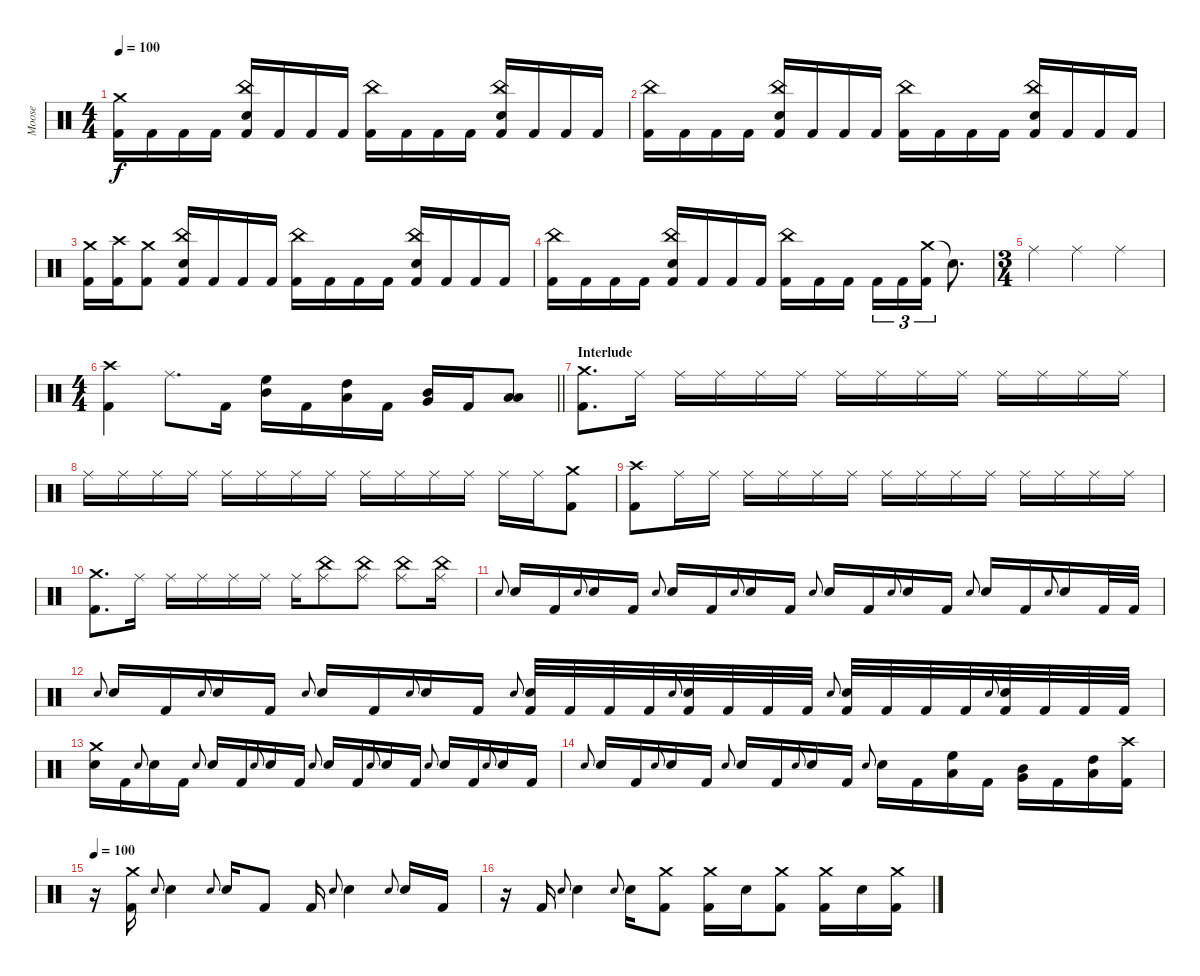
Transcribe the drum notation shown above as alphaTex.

\track ("Moose" "Moose") {instrument percussion}
\staff {score}
\articulation defaults
\ts (4 4)
\tempo 100
\clef neutral
\ks c
("Crash medium (hit)" "Kick (hit) 2").16{dy f} "Kick (hit) 2".16 "Kick (hit) 2".16 "Kick (hit) 2".16 ("China (hit)" "Electric Snare (hit)" "Kick (hit) 2").16 "Kick (hit) 2".16 "Kick (hit) 2".16 "Kick (hit) 2".16 ("China (hit)" "Kick (hit) 2").16 "Kick (hit) 2".16 "Kick (hit) 2".16 "Kick (hit) 2".16 ("China (hit)" "Electric Snare (hit)" "Kick (hit) 2").16 "Kick (hit) 2".16 "Kick (hit) 2".16 "Kick (hit) 2".16 |
("China (hit)" "Kick (hit) 2").16 "Kick (hit) 2".16 "Kick (hit) 2".16 "Kick (hit) 2".16 ("China (hit)" "Electric Snare (hit)" "Kick (hit) 2").16 "Kick (hit) 2".16 "Kick (hit) 2".16 "Kick (hit) 2".16 ("China (hit)" "Kick (hit) 2").16 "Kick (hit) 2".16 "Kick (hit) 2".16 "Kick (hit) 2".16 ("China (hit)" "Electric Snare (hit)" "Kick (hit) 2").16 "Kick (hit) 2".16 "Kick (hit) 2".16 "Kick (hit) 2".16 |
("Crash medium (hit)" "Kick (hit) 2").16 ("Crash high (hit)" "Kick (hit) 2").16 ("Crash medium (hit)" "Kick (hit) 2").8 ("China (hit)" "Electric Snare (hit)" "Kick (hit) 2").16 "Kick (hit) 2".16 "Kick (hit) 2".16 "Kick (hit) 2".16 ("China (hit)" "Kick (hit) 2").16 "Kick (hit) 2".16 "Kick (hit) 2".16 "Kick (hit) 2".16 ("China (hit)" "Electric Snare (hit)" "Kick (hit) 2").16 "Kick (hit) 2".16 "Kick (hit) 2".16 "Kick (hit) 2".16 |
("China (hit)" "Kick (hit) 2").16 "Kick (hit) 2".16 "Kick (hit) 2".16 "Kick (hit) 2".16 ("China (hit)" "Electric Snare (hit)" "Kick (hit) 2").16 "Kick (hit) 2".16 "Kick (hit) 2".16 "Kick (hit) 2".16 ("China (hit)" "Kick (hit) 2").16 "Kick (hit) 2".16 "Kick (hit) 2".16{beam splitsecondary} "Kick (hit) 2".16{tu (3 2)} "Kick (hit) 2".16{tu (3 2)} ("Crash medium (hit)" "Kick (hit) 2").16{tu (3 2)} "Snare (hit)"{t}.8{d} |
\ts (3 4)
"Ride (middle)".4 "Ride (middle)".4 "Ride (middle)".4 |
\ts (4 4)
\barLineRight lightlight
("Crash high (hit)" "Kick (hit) 2").4 "Ride (middle)".8{d} "Kick (hit) 2".16 ("High Floor Tom (hit)" "Mid Tom (hit)").16 "Kick (hit) 2".16 ("High Tom (hit)" "Low Tom (hit)").16 "Kick (hit) 2".16 ("Very Low Tom (hit)" "Mid Tom (hit)").16 "Kick (hit) 2".16 ("Low Tom (hit)" "Low Floor Tom (hit)").8 |
\section ("" "Interlude")
("Crash medium (hit)" "Kick (hit) 2").8{d} "Ride (middle)".16 "Ride (middle)".16 "Ride (middle)".16 "Ride (middle)".16 "Ride (middle)".16 "Ride (middle)".16 "Ride (middle)".16 "Ride (middle)".16 "Ride (middle)".16 "Ride (middle)".16 "Ride (middle)".16 "Ride (middle)".16 "Ride (middle)".16 |
"Ride (middle)".16 "Ride (middle)".16 "Ride (middle)".16 "Ride (middle)".16 "Ride (middle)".16 "Ride (middle)".16 "Ride (middle)".16 "Ride (middle)".16 "Ride (middle)".16 "Ride (middle)".16 "Ride (middle)".16 "Ride (middle)".16 "Ride (middle)".16 "Ride (middle)".16 ("Crash medium (hit)" "Kick (hit) 2").8 |
("Crash high (hit)" "Kick (hit) 2").8 "Ride (middle)".16 "Ride (middle)".16 "Ride (middle)".16 "Ride (middle)".16 "Ride (middle)".16 "Ride (middle)".16 "Ride (middle)".16 "Ride (middle)".16 "Ride (middle)".16 "Ride (middle)".16 "Ride (middle)".16 "Ride (middle)".16 "Ride (middle)".16 "Ride (middle)".16 |
("Crash medium (hit)" "Kick (hit) 2").8{d} "Ride (middle)".16 "Ride (middle)".16 "Ride (middle)".16 "Ride (middle)".16 "Ride (middle)".16 "Ride (middle)".16 ("Ride (middle)" "China (hit)").8 ("Ride (middle)" "China (hit)").8 ("Ride (middle)" "China (hit)").8 ("Ride (middle)" "China (hit)").16 |
"Electric Snare (hit)".8{gr onbeat} "Electric Snare (hit)".16 "Kick (hit) 2".16 "Electric Snare (hit)".8{gr onbeat} "Electric Snare (hit)".16 "Kick (hit) 2".16 "Electric Snare (hit)".8{gr onbeat} "Electric Snare (hit)".16 "Kick (hit) 2".16 "Electric Snare (hit)".8{gr onbeat} "Electric Snare (hit)".16 "Kick (hit) 2".16 "Electric Snare (hit)".8{gr onbeat} "Electric Snare (hit)".16 "Kick (hit) 2".16 "Electric Snare (hit)".8{gr onbeat} "Electric Snare (hit)".16 "Kick (hit) 2".16 "Electric Snare (hit)".8{gr onbeat} "Electric Snare (hit)".16 "Kick (hit) 2".16 "Electric Snare (hit)".8{gr onbeat} "Electric Snare (hit)".16 "Kick (hit) 2".32 "Kick (hit) 2".32 |
"Electric Snare (hit)".8{gr onbeat} "Electric Snare (hit)".16 "Kick (hit) 2".16 "Electric Snare (hit)".8{gr onbeat} "Electric Snare (hit)".16 "Kick (hit) 2".16 "Electric Snare (hit)".8{gr onbeat} "Electric Snare (hit)".16 "Kick (hit) 2".16 "Electric Snare (hit)".8{gr onbeat} "Electric Snare (hit)".16 "Kick (hit) 2".16 "Electric Snare (hit)".8{gr onbeat} ("Electric Snare (hit)" "Kick (hit) 2").32 "Kick (hit) 2".32 "Kick (hit) 2".32 "Kick (hit) 2".32 "Electric Snare (hit)".8{gr onbeat} ("Electric Snare (hit)" "Kick (hit) 2").32 "Kick (hit) 2".32 "Kick (hit) 2".32 "Kick (hit) 2".32 "Electric Snare (hit)".8{gr onbeat} ("Electric Snare (hit)" "Kick (hit) 2").32 "Kick (hit) 2".32 "Kick (hit) 2".32 "Kick (hit) 2".32 "Electric Snare (hit)".8{gr onbeat} ("Electric Snare (hit)" "Kick (hit) 2").32 "Kick (hit) 2".32 "Kick (hit) 2".32 "Kick (hit) 2".32 |
("Crash medium (hit)" "Electric Snare (hit)").16 "Kick (hit) 2".16 "Electric Snare (hit)".8{gr onbeat} "Electric Snare (hit)".16 "Kick (hit) 2".16 "Electric Snare (hit)".8{gr onbeat} "Electric Snare (hit)".16 "Kick (hit) 2".16 "Electric Snare (hit)".8{gr onbeat} "Electric Snare (hit)".16 "Kick (hit) 2".16 "Electric Snare (hit)".8{gr onbeat} "Electric Snare (hit)".16 "Kick (hit) 2".16 "Electric Snare (hit)".8{gr onbeat} "Electric Snare (hit)".16 "Kick (hit) 2".16 "Electric Snare (hit)".8{gr onbeat} "Electric Snare (hit)".16 "Kick (hit) 2".16 "Electric Snare (hit)".8{gr onbeat} "Electric Snare (hit)".16 "Kick (hit) 2".16 |
"Electric Snare (hit)".8{gr onbeat} "Electric Snare (hit)".16 "Kick (hit) 2".16 "Electric Snare (hit)".8{gr onbeat} "Electric Snare (hit)".16 "Kick (hit) 2".16 "Electric Snare (hit)".8{gr onbeat} "Electric Snare (hit)".16 "Kick (hit) 2".16 "Electric Snare (hit)".8{gr onbeat} "Electric Snare (hit)".16 "Kick (hit) 2".16 "Electric Snare (hit)".8{gr onbeat} "Electric Snare (hit)".16 "Kick (hit) 2".16 ("High Floor Tom (hit)" "Low Tom (hit)").16 "Kick (hit) 2".16 ("Mid Tom (hit)" "Very Low Tom (hit)").16 "Kick (hit) 2".16 ("High Tom (hit)" "Low Floor Tom (hit)").16 ("Crash high (hit)" "Kick (hit) 2").16 |
\tempo 100
r.16 ("Crash medium (hit)" "Kick (hit) 2").16 "Electric Snare (hit)".8{gr onbeat} "Electric Snare (hit)".4 "Electric Snare (hit)".8{gr onbeat} "Electric Snare (hit)".16 "Kick (hit) 2".8 "Kick (hit) 2".16 "Electric Snare (hit)".8{gr onbeat} "Electric Snare (hit)".4 "Electric Snare (hit)".8{gr onbeat} "Electric Snare (hit)".16 "Kick (hit) 2".16 |
r.16 "Kick (hit) 2".16 "Electric Snare (hit)".8{gr onbeat} "Electric Snare (hit)".4 "Electric Snare (hit)".8{gr onbeat} "Electric Snare (hit)".16 ("Crash medium (hit)" "Kick (hit) 2").8 ("Crash medium (hit)" "Kick (hit) 2").16 "Electric Snare (hit)".16 ("Crash medium (hit)" "Kick (hit) 2").8 ("Crash medium (hit)" "Kick (hit) 2").16 "Electric Snare (hit)".16 ("Crash medium (hit)" "Kick (hit) 2").16
